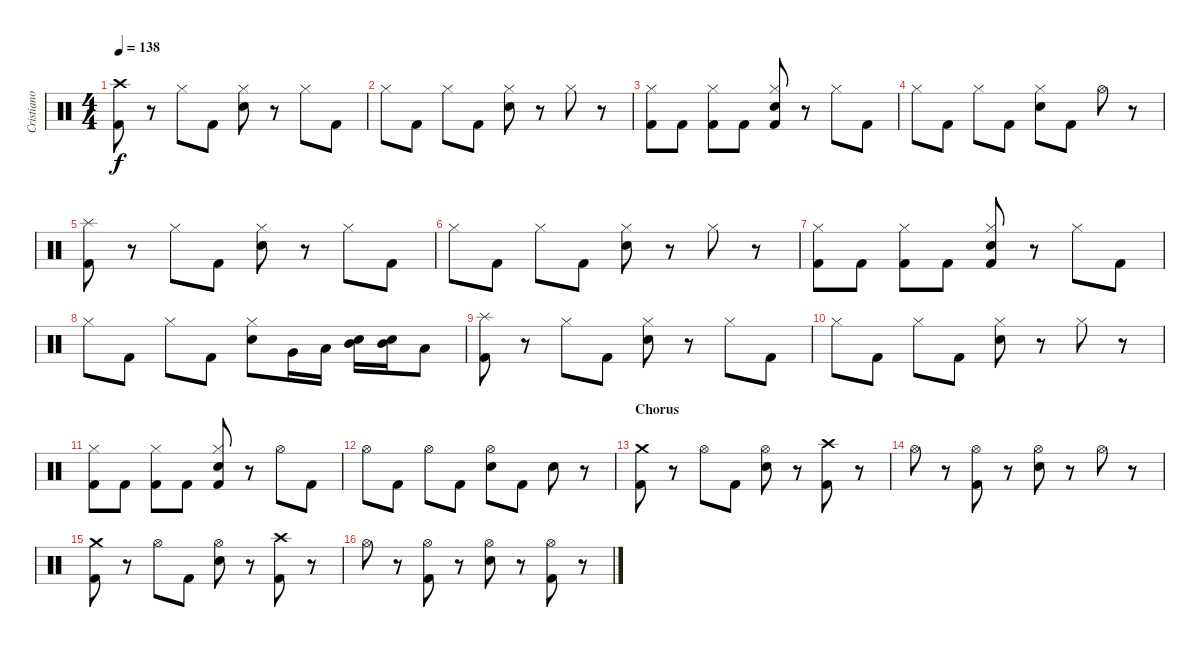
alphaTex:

\track ("Cristiano Mozatti" "Cristiano ") {instrument percussion}
\staff {score}
\articulation defaults
\ts (4 4)
\tempo 138
\clef neutral
\ks c
("Crash high (hit)" "Kick (hit) 2").8{dy f} r.8 "Hi-Hat (closed)".8 "Kick (hit) 2".8 ("Hi-Hat (closed)" "Snare (hit) 2").8 r.8 "Hi-Hat (closed)".8 "Kick (hit) 2".8 |
"Hi-Hat (closed)".8 "Kick (hit) 2".8 "Hi-Hat (closed)".8 "Kick (hit) 2".8 ("Hi-Hat (closed)" "Snare (hit) 2").8 r.8 "Hi-Hat (closed)".8 r.8 |
("Hi-Hat (closed)" "Kick (hit) 2").8 "Kick (hit) 2".8 ("Hi-Hat (closed)" "Kick (hit) 2").8 "Kick (hit) 2".8 ("Hi-Hat (closed)" "Snare (hit) 2" "Kick (hit) 2").8 r.8 "Hi-Hat (closed)".8 "Kick (hit) 2".8 |
"Hi-Hat (closed)".8 "Kick (hit) 2".8 "Hi-Hat (closed)".8 "Kick (hit) 2".8 ("Hi-Hat (closed)" "Snare (hit) 2").8 "Kick (hit) 2".8 "Hi-Hat (open)".8 r.8 |
("Splash (hit)" "Kick (hit) 2").8 r.8 "Hi-Hat (closed)".8 "Kick (hit) 2".8 ("Hi-Hat (closed)" "Snare (hit) 2").8 r.8 "Hi-Hat (closed)".8 "Kick (hit) 2".8 |
"Hi-Hat (closed)".8 "Kick (hit) 2".8 "Hi-Hat (closed)".8 "Kick (hit) 2".8 ("Hi-Hat (closed)" "Snare (hit) 2").8 r.8 "Hi-Hat (closed)".8 r.8 |
("Hi-Hat (closed)" "Kick (hit) 2").8 "Kick (hit) 2".8 ("Hi-Hat (closed)" "Kick (hit) 2").8 "Kick (hit) 2".8 ("Hi-Hat (closed)" "Snare (hit) 2" "Kick (hit) 2").8 r.8 "Hi-Hat (closed)".8 "Kick (hit) 2".8 |
"Hi-Hat (closed)".8 "Kick (hit) 2".8 "Hi-Hat (closed)".8 "Kick (hit) 2".8 ("Hi-Hat (closed)" "Snare (hit) 2").8 "Very Low Tom (hit)".16 "Low Tom (hit)".16 ("Snare (hit) 2" "Mid Tom (hit)").16 ("Snare (hit) 2" "Mid Tom (hit)").16 "Low Tom (hit)".8 |
("Splash (hit)" "Kick (hit) 2").8 r.8 "Hi-Hat (closed)".8 "Kick (hit) 2".8 ("Hi-Hat (closed)" "Snare (hit) 2").8 r.8 "Hi-Hat (closed)".8 "Kick (hit) 2".8 |
"Hi-Hat (closed)".8 "Kick (hit) 2".8 "Hi-Hat (closed)".8 "Kick (hit) 2".8 ("Hi-Hat (closed)" "Snare (hit) 2").8 r.8 "Hi-Hat (closed)".8 r.8 |
("Hi-Hat (closed)" "Kick (hit) 2").8 "Kick (hit) 2".8 ("Hi-Hat (closed)" "Kick (hit) 2").8 "Kick (hit) 2".8 ("Hi-Hat (closed)" "Snare (hit) 2" "Kick (hit) 2").8 r.8 "Hi-Hat (open)".8 "Kick (hit) 2".8 |
"Hi-Hat (open)".8 "Kick (hit) 2".8 "Hi-Hat (open)".8 "Kick (hit) 2".8 ("Hi-Hat (open)" "Snare (hit) 2").8 "Kick (hit) 2".8 "Snare (hit) 2".8 r.8 |
\section ("" "Chorus")
("Crash medium (hit)" "Kick (hit) 2").8 r.8 "Hi-Hat (open)".8 "Kick (hit) 2".8 ("Hi-Hat (open)" "Snare (hit) 2").8 r.8 ("Crash high (hit)" "Kick (hit) 2").8 r.8 |
"Hi-Hat (open)".8 r.8 ("Hi-Hat (open)" "Kick (hit) 2").8 r.8 ("Hi-Hat (open)" "Snare (hit) 2").8 r.8 "Hi-Hat (open)".8 r.8 |
("Crash medium (hit)" "Kick (hit) 2").8 r.8 "Hi-Hat (open)".8 "Kick (hit) 2".8 ("Hi-Hat (open)" "Snare (hit) 2").8 r.8 ("Crash high (hit)" "Kick (hit) 2").8 r.8 |
"Hi-Hat (open)".8 r.8 ("Hi-Hat (open)" "Kick (hit) 2").8 r.8 ("Hi-Hat (open)" "Snare (hit) 2").8 r.8 ("Hi-Hat (open)" "Kick (hit) 2").8 r.8
